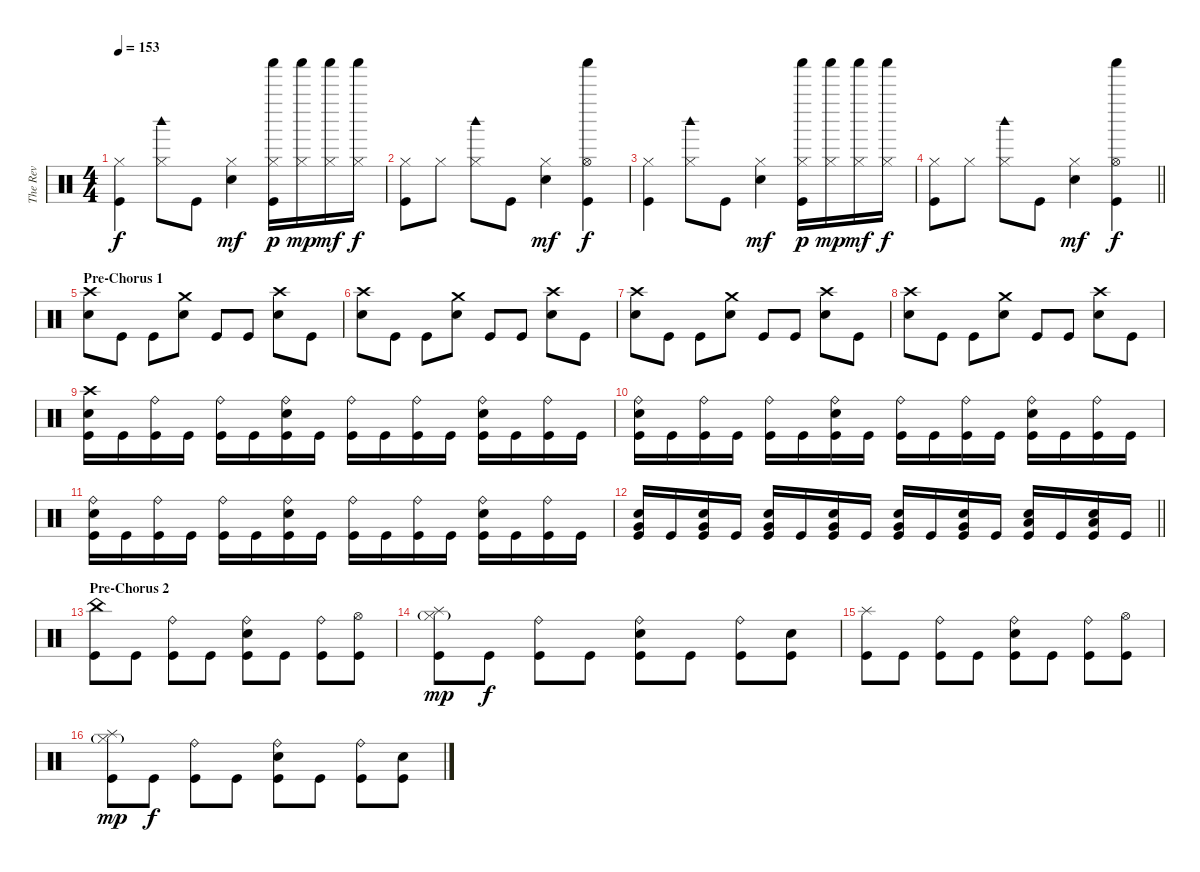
\track ("The Rev" "The Rev") {instrument percussion}
\staff {score}
\articulation defaults
\ts (4 4)
\tempo 153
\clef neutral
\ks c
("Hi-Hat (closed)" "Kick (hit)").4{dy f} ("Hi-Hat (closed)" "Woodblock high (hit)").8 "Kick (hit)".8 ("Hi-Hat (closed)" "Electric Snare (hit)").4{dy mf} ("Hi-Hat (closed)" "Shaker (hit)" "Kick (hit)").16{dy p} ("Hi-Hat (closed)" "Shaker (hit)").16{dy mp} ("Hi-Hat (closed)" "Shaker (hit)").16{dy mf} ("Hi-Hat (closed)" "Shaker (hit)").16{dy f} |
("Hi-Hat (closed)" "Kick (hit)").8 "Hi-Hat (closed)".8 ("Hi-Hat (closed)" "Woodblock high (hit)").8 "Kick (hit)".8 ("Hi-Hat (closed)" "Electric Snare (hit)").4{dy mf} ("Hi-Hat (open)" "Shaker (hit)" "Kick (hit)").4{dy f} |
("Hi-Hat (closed)" "Kick (hit)").4 ("Hi-Hat (closed)" "Woodblock high (hit)").8 "Kick (hit)".8 ("Hi-Hat (closed)" "Electric Snare (hit)").4{dy mf} ("Hi-Hat (closed)" "Shaker (hit)" "Kick (hit)").16{dy p} ("Hi-Hat (closed)" "Shaker (hit)").16{dy mp} ("Hi-Hat (closed)" "Shaker (hit)").16{dy mf} ("Hi-Hat (closed)" "Shaker (hit)").16{dy f} |
\barLineRight lightlight
("Hi-Hat (closed)" "Kick (hit)").8 "Hi-Hat (closed)".8 ("Hi-Hat (closed)" "Woodblock high (hit)").8 "Kick (hit)".8 ("Hi-Hat (closed)" "Electric Snare (hit)").4{dy mf} ("Hi-Hat (open)" "Shaker (hit)" "Kick (hit)").4{dy f} |
\section ("" "Pre-Chorus 1")
("Crash high (hit)" "Electric Snare (hit)").8 "Kick (hit)".8 "Kick (hit)".8 ("Crash medium (hit)" "Electric Snare (hit)").8 "Kick (hit)".8 "Kick (hit)".8 ("Crash high (hit)" "Electric Snare (hit)").8 "Kick (hit)".8 |
("Crash high (hit)" "Electric Snare (hit)").8 "Kick (hit)".8 "Kick (hit)".8 ("Crash medium (hit)" "Electric Snare (hit)").8 "Kick (hit)".8 "Kick (hit)".8 ("Crash high (hit)" "Electric Snare (hit)").8 "Kick (hit)".8 |
("Crash high (hit)" "Electric Snare (hit)").8 "Kick (hit)".8 "Kick (hit)".8 ("Crash medium (hit)" "Electric Snare (hit)").8 "Kick (hit)".8 "Kick (hit)".8 ("Crash high (hit)" "Electric Snare (hit)").8 "Kick (hit)".8 |
("Crash high (hit)" "Electric Snare (hit)").8 "Kick (hit)".8 "Kick (hit)".8 ("Crash medium (hit)" "Electric Snare (hit)").8 "Kick (hit)".8 "Kick (hit)".8 ("Crash high (hit)" "Electric Snare (hit)").8 "Kick (hit)".8 |
("Crash high (hit)" "Electric Snare (hit)" "Kick (hit)").16 "Kick (hit)".16 ("Ride (bell)" "Kick (hit)").16 "Kick (hit)".16 ("Ride (bell)" "Kick (hit)").16 "Kick (hit)".16 ("Ride (bell)" "Electric Snare (hit)" "Kick (hit)").16 "Kick (hit)".16 ("Ride (bell)" "Kick (hit)").16 "Kick (hit)".16 ("Ride (bell)" "Kick (hit)").16 "Kick (hit)".16 ("Ride (bell)" "Electric Snare (hit)" "Kick (hit)").16 "Kick (hit)".16 ("Ride (bell)" "Kick (hit)").16 "Kick (hit)".16 |
("Ride (bell)" "Electric Snare (hit)" "Kick (hit)").16 "Kick (hit)".16 ("Ride (bell)" "Kick (hit)").16 "Kick (hit)".16 ("Ride (bell)" "Kick (hit)").16 "Kick (hit)".16 ("Ride (bell)" "Electric Snare (hit)" "Kick (hit)").16 "Kick (hit)".16 ("Ride (bell)" "Kick (hit)").16 "Kick (hit)".16 ("Ride (bell)" "Kick (hit)").16 "Kick (hit)".16 ("Ride (bell)" "Electric Snare (hit)" "Kick (hit)").16 "Kick (hit)".16 ("Ride (bell)" "Kick (hit)").16 "Kick (hit)".16 |
("Ride (bell)" "Electric Snare (hit)" "Kick (hit)").16 "Kick (hit)".16 ("Ride (bell)" "Kick (hit)").16 "Kick (hit)".16 ("Ride (bell)" "Kick (hit)").16 "Kick (hit)".16 ("Ride (bell)" "Electric Snare (hit)" "Kick (hit)").16 "Kick (hit)".16 ("Ride (bell)" "Kick (hit)").16 "Kick (hit)".16 ("Ride (bell)" "Kick (hit)").16 "Kick (hit)".16 ("Ride (bell)" "Electric Snare (hit)" "Kick (hit)").16 "Kick (hit)".16 ("Ride (bell)" "Kick (hit)").16 "Kick (hit)".16 |
\barLineRight lightlight
("Electric Snare (hit)" "Very Low Tom (hit)" "Kick (hit)").16 "Kick (hit)".16 ("Electric Snare (hit)" "Very Low Tom (hit)" "Kick (hit)").16 "Kick (hit)".16 ("Electric Snare (hit)" "Very Low Tom (hit)" "Kick (hit)").16 "Kick (hit)".16 ("Electric Snare (hit)" "Very Low Tom (hit)" "Kick (hit)").16 "Kick (hit)".16 ("Electric Snare (hit)" "Very Low Tom (hit)" "Kick (hit)").16 "Kick (hit)".16 ("Electric Snare (hit)" "Very Low Tom (hit)" "Kick (hit)").16 "Kick (hit)".16 ("Electric Snare (hit)" "Low Tom (hit)" "Kick (hit)").16 "Kick (hit)".16 ("Electric Snare (hit)" "Low Tom (hit)" "Kick (hit)").16 "Kick (hit)".16 |
\section ("" "Pre-Chorus 2")
("China (hit)" "Kick (hit)").8 "Kick (hit)".8 ("Ride (bell)" "Kick (hit)").8 "Kick (hit)".8 ("Ride (bell)" "Electric Snare (hit)" "Kick (hit)").8 "Kick (hit)".8 ("Ride (bell)" "Kick (hit)").8 ("Hi-Hat (open)" "Kick (hit)").8 |
("Splash (hit)" "Hi-Hat (closed)"{g} "Kick (hit)").8{dy mp} "Kick (hit)".8{dy f} ("Ride (bell)" "Kick (hit)").8 "Kick (hit)".8 ("Ride (bell)" "Electric Snare (hit)" "Kick (hit)").8 "Kick (hit)".8 ("Ride (bell)" "Kick (hit)").8 ("Electric Snare (hit)" "Kick (hit)").8 |
("Splash (hit)" "Kick (hit)").8 "Kick (hit)".8 ("Ride (bell)" "Kick (hit)").8 "Kick (hit)".8 ("Ride (bell)" "Electric Snare (hit)" "Kick (hit)").8 "Kick (hit)".8 ("Ride (bell)" "Kick (hit)").8 ("Hi-Hat (open)" "Kick (hit)").8 |
("Splash (hit)" "Hi-Hat (closed)"{g} "Kick (hit)").8{dy mp} "Kick (hit)".8{dy f} ("Ride (bell)" "Kick (hit)").8 "Kick (hit)".8 ("Ride (bell)" "Electric Snare (hit)" "Kick (hit)").8 "Kick (hit)".8 ("Ride (bell)" "Kick (hit)").8 ("Electric Snare (hit)" "Kick (hit)").8
